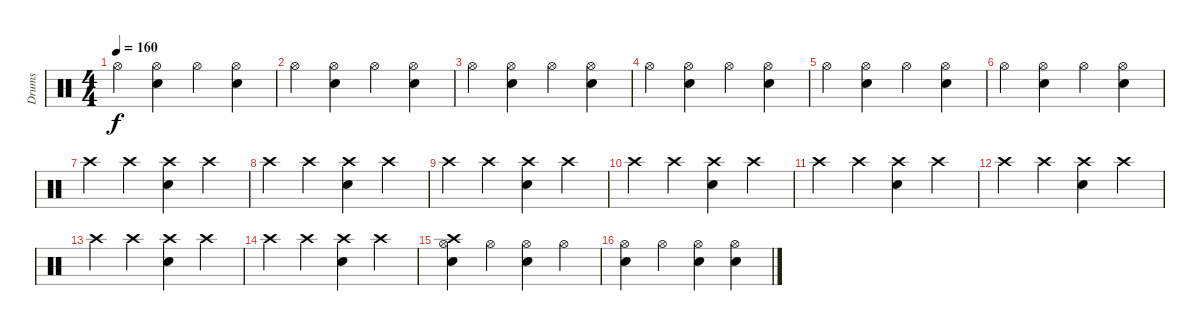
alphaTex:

\track ("Drums" "Drums") {instrument percussion}
\staff {score}
\articulation defaults
\ts (4 4)
\tempo 160
\clef neutral
\ks c "Hi-Hat (open)".4{dy f}
("Hi-Hat (open)" "Electric Snare (hit)").4 "Hi-Hat (open)".4 ("Hi-Hat (open)" "Electric Snare (hit)").4 |
"Hi-Hat (open)".4 ("Hi-Hat (open)" "Electric Snare (hit)").4 "Hi-Hat (open)".4 ("Hi-Hat (open)" "Electric Snare (hit)").4 |
"Hi-Hat (open)".4 ("Hi-Hat (open)" "Electric Snare (hit)").4 "Hi-Hat (open)".4 ("Hi-Hat (open)" "Electric Snare (hit)").4 |
"Hi-Hat (open)".4 ("Hi-Hat (open)" "Electric Snare (hit)").4 "Hi-Hat (open)".4 ("Hi-Hat (open)" "Electric Snare (hit)").4 |
"Hi-Hat (open)".4 ("Hi-Hat (open)" "Electric Snare (hit)").4 "Hi-Hat (open)".4 ("Hi-Hat (open)" "Electric Snare (hit)").4 |
"Hi-Hat (open)".4 ("Hi-Hat (open)" "Electric Snare (hit)").4 "Hi-Hat (open)".4 ("Hi-Hat (open)" "Electric Snare (hit)").4 |
"Crash high (hit)".4 "Crash high (hit)".4 ("Crash high (hit)" "Electric Snare (hit)").4 "Crash high (hit)".4 |
"Crash high (hit)".4 "Crash high (hit)".4 ("Crash high (hit)" "Electric Snare (hit)").4 "Crash high (hit)".4 |
"Crash high (hit)".4 "Crash high (hit)".4 ("Crash high (hit)" "Electric Snare (hit)").4 "Crash high (hit)".4 |
"Crash high (hit)".4 "Crash high (hit)".4 ("Crash high (hit)" "Electric Snare (hit)").4 "Crash high (hit)".4 |
"Crash high (hit)".4 "Crash high (hit)".4 ("Crash high (hit)" "Electric Snare (hit)").4 "Crash high (hit)".4 |
"Crash high (hit)".4 "Crash high (hit)".4 ("Crash high (hit)" "Electric Snare (hit)").4 "Crash high (hit)".4 |
"Crash high (hit)".4 "Crash high (hit)".4 ("Crash high (hit)" "Electric Snare (hit)").4 "Crash high (hit)".4 |
"Crash high (hit)".4 "Crash high (hit)".4 ("Crash high (hit)" "Electric Snare (hit)").4 "Crash high (hit)".4 |
("Crash high (hit)" "Hi-Hat (open)" "Electric Snare (hit)").4 "Hi-Hat (open)".4 ("Hi-Hat (open)" "Electric Snare (hit)").4 "Hi-Hat (open)".4 |
("Hi-Hat (open)" "Electric Snare (hit)").4 "Hi-Hat (open)".4 ("Hi-Hat (open)" "Electric Snare (hit)").4 ("Hi-Hat (open)" "Electric Snare (hit)").4
